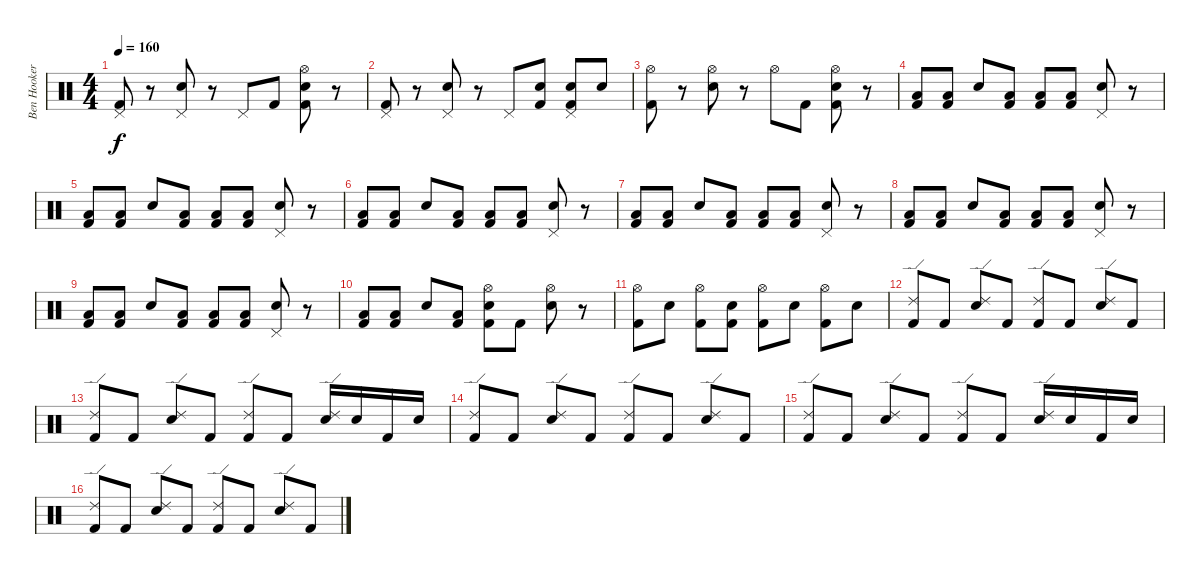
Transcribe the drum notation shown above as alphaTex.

\track ("Ben Hooker" "Ben Hooker") {instrument percussion}
\staff {score}
\articulation defaults
\ts (4 4)
\tempo 160
\clef neutral
\ks c
("Pedal Hi-Hat (hit)" "Kick (hit) 2").8{dy f} r.8 ("Snare (hit) 2" "Pedal Hi-Hat (hit)").8 r.8 "Pedal Hi-Hat (hit)".8 "Kick (hit) 2".8 ("Snare (hit) 2" "Hi-Hat (open)" "Kick (hit) 2").8 r.8 |
("Pedal Hi-Hat (hit)" "Kick (hit) 2").8 r.8 ("Snare (hit) 2" "Pedal Hi-Hat (hit)").8 r.8 "Pedal Hi-Hat (hit)".8 ("Snare (hit) 2" "Kick (hit) 2").8 ("Snare (hit) 2" "Pedal Hi-Hat (hit)" "Kick (hit) 2").8 "Snare (hit) 2".8 |
("Hi-Hat (open)" "Kick (hit) 2").8 r.8 ("Snare (hit) 2" "Hi-Hat (open)").8 r.8 "Hi-Hat (open)".8 "Kick (hit) 2".8 ("Snare (hit) 2" "Hi-Hat (open)" "Kick (hit) 2").8 r.8 |
("Low Tom (hit)" "Kick (hit) 2").8 ("Low Tom (hit)" "Kick (hit) 2").8 "Snare (hit) 2".8 ("Low Tom (hit)" "Kick (hit) 2").8 ("Low Tom (hit)" "Kick (hit) 2").8 ("Low Tom (hit)" "Kick (hit) 2").8 ("Pedal Hi-Hat (hit)" "Snare (hit) 2").8 r.8 |
("Low Tom (hit)" "Kick (hit) 2").8 ("Low Tom (hit)" "Kick (hit) 2").8 "Snare (hit) 2".8 ("Low Tom (hit)" "Kick (hit) 2").8 ("Low Tom (hit)" "Kick (hit) 2").8 ("Low Tom (hit)" "Kick (hit) 2").8 ("Pedal Hi-Hat (hit)" "Snare (hit) 2").8 r.8 |
("Low Tom (hit)" "Kick (hit) 2").8 ("Low Tom (hit)" "Kick (hit) 2").8 "Snare (hit) 2".8 ("Low Tom (hit)" "Kick (hit) 2").8 ("Low Tom (hit)" "Kick (hit) 2").8 ("Low Tom (hit)" "Kick (hit) 2").8 ("Pedal Hi-Hat (hit)" "Snare (hit) 2").8 r.8 |
("Low Tom (hit)" "Kick (hit) 2").8 ("Low Tom (hit)" "Kick (hit) 2").8 "Snare (hit) 2".8 ("Low Tom (hit)" "Kick (hit) 2").8 ("Low Tom (hit)" "Kick (hit) 2").8 ("Low Tom (hit)" "Kick (hit) 2").8 ("Pedal Hi-Hat (hit)" "Snare (hit) 2").8 r.8 |
("Low Tom (hit)" "Kick (hit) 2").8 ("Low Tom (hit)" "Kick (hit) 2").8 "Snare (hit) 2".8 ("Low Tom (hit)" "Kick (hit) 2").8 ("Low Tom (hit)" "Kick (hit) 2").8 ("Low Tom (hit)" "Kick (hit) 2").8 ("Pedal Hi-Hat (hit)" "Snare (hit) 2").8 r.8 |
("Low Tom (hit)" "Kick (hit) 2").8 ("Low Tom (hit)" "Kick (hit) 2").8 "Snare (hit) 2".8 ("Low Tom (hit)" "Kick (hit) 2").8 ("Low Tom (hit)" "Kick (hit) 2").8 ("Low Tom (hit)" "Kick (hit) 2").8 ("Pedal Hi-Hat (hit)" "Snare (hit) 2").8 r.8 |
("Low Tom (hit)" "Kick (hit) 2").8 ("Low Tom (hit)" "Kick (hit) 2").8 "Snare (hit) 2".8 ("Low Tom (hit)" "Kick (hit) 2").8 ("Hi-Hat (open)" "Snare (hit) 2" "Kick (hit) 2").8 "Kick (hit) 2".8 ("Hi-Hat (open)" "Snare (hit) 2").8 r.8 |
("Hi-Hat (open)" "Kick (hit) 2").8 "Snare (hit) 2".8 ("Hi-Hat (open)" "Kick (hit) 2").8 ("Snare (hit) 2" "Kick (hit) 2").8 ("Hi-Hat (open)" "Kick (hit) 2").8 "Snare (hit) 2".8 ("Hi-Hat (open)" "Kick (hit) 2").8 "Snare (hit) 2".8 |
("Ride (edge) 2" "Kick (hit) 2").8 "Kick (hit) 2".8 ("Ride (edge) 2" "Snare (hit) 2").8 "Kick (hit) 2".8 ("Ride (edge) 2" "Kick (hit) 2").8 "Kick (hit) 2".8 ("Ride (edge) 2" "Snare (hit) 2").8 "Kick (hit) 2".8 |
("Ride (edge) 2" "Kick (hit) 2").8 "Kick (hit) 2".8 ("Ride (edge) 2" "Snare (hit) 2").8 "Kick (hit) 2".8 ("Ride (edge) 2" "Kick (hit) 2").8 "Kick (hit) 2".8 ("Ride (edge) 2" "Snare (hit) 2").16 "Snare (hit) 2".16 "Kick (hit) 2".16 "Snare (hit) 2".16 |
("Ride (edge) 2" "Kick (hit) 2").8 "Kick (hit) 2".8 ("Ride (edge) 2" "Snare (hit) 2").8 "Kick (hit) 2".8 ("Ride (edge) 2" "Kick (hit) 2").8 "Kick (hit) 2".8 ("Ride (edge) 2" "Snare (hit) 2").8 "Kick (hit) 2".8 |
("Ride (edge) 2" "Kick (hit) 2").8 "Kick (hit) 2".8 ("Ride (edge) 2" "Snare (hit) 2").8 "Kick (hit) 2".8 ("Ride (edge) 2" "Kick (hit) 2").8 "Kick (hit) 2".8 ("Ride (edge) 2" "Snare (hit) 2").16 "Snare (hit) 2".16 "Kick (hit) 2".16 "Snare (hit) 2".16 |
("Ride (edge) 2" "Kick (hit) 2").8 "Kick (hit) 2".8 ("Ride (edge) 2" "Snare (hit) 2").8 "Kick (hit) 2".8 ("Ride (edge) 2" "Kick (hit) 2").8 "Kick (hit) 2".8 ("Ride (edge) 2" "Snare (hit) 2").8 "Kick (hit) 2".8
